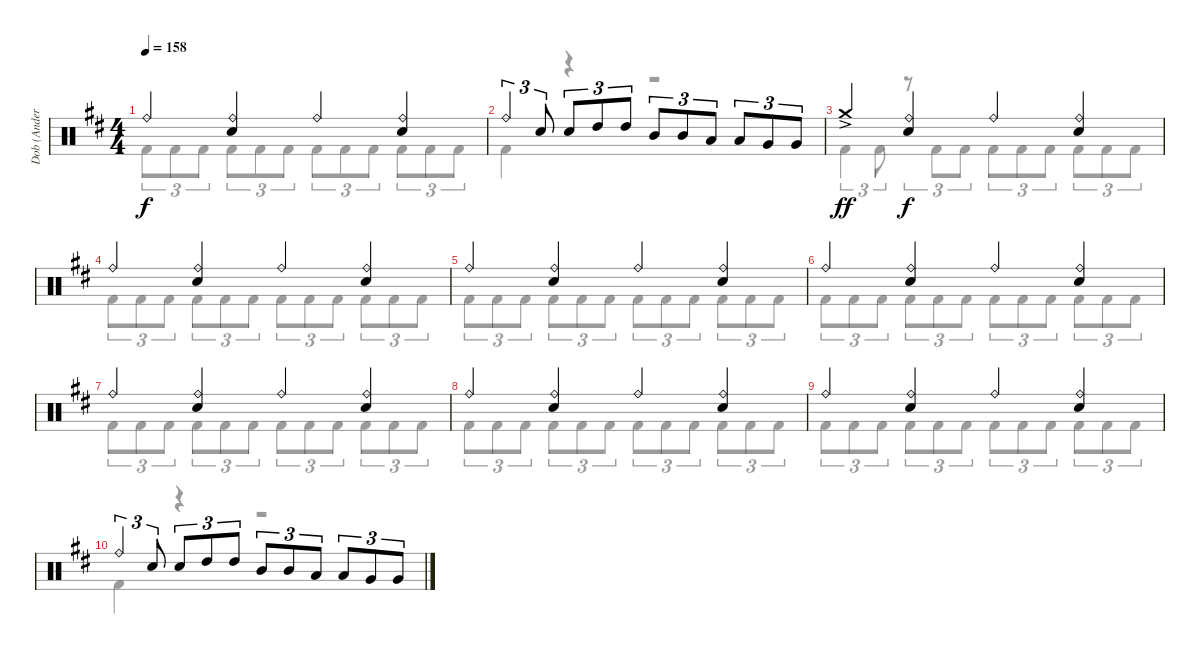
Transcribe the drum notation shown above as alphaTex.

\track ("Dob (Anders Johansson)" "Dob (Ander") {instrument percussion}
\staff {score}
\articulation defaults
\voice
\ts (4 4)
\tempo 158
\clef neutral
\ks d "Ride (bell)".4{dy f}
("Ride (bell)" "Electric Snare (hit)").4 "Ride (bell)".4 ("Ride (bell)" "Electric Snare (hit)").4 |
"Ride (bell)".4{tu (3 2)} "Electric Snare (hit)".8{tu (3 2)} "Electric Snare (hit)".8{tu (3 2)} "High Tom (hit)".8{tu (3 2)} "High Tom (hit)".8{tu (3 2)} "Mid Tom (hit)".8{tu (3 2)} "Mid Tom (hit)".8{tu (3 2)} "Low Tom (hit)".8{tu (3 2)} "Low Tom (hit)".8{tu (3 2)} "Very Low Tom (hit)".8{tu (3 2)} "Very Low Tom (hit)".8{tu (3 2)} |
"Crash medium (hit)"{ac}.4{dy ff} ("Ride (bell)" "Electric Snare (hit)").4{dy f} "Ride (bell)".4 ("Ride (bell)" "Electric Snare (hit)").4 |
"Ride (bell)".4 ("Ride (bell)" "Electric Snare (hit)").4 "Ride (bell)".4 ("Ride (bell)" "Electric Snare (hit)").4 |
"Ride (bell)".4 ("Ride (bell)" "Electric Snare (hit)").4 "Ride (bell)".4 ("Ride (bell)" "Electric Snare (hit)").4 |
"Ride (bell)".4 ("Ride (bell)" "Electric Snare (hit)").4 "Ride (bell)".4 ("Ride (bell)" "Electric Snare (hit)").4 |
"Ride (bell)".4 ("Ride (bell)" "Electric Snare (hit)").4 "Ride (bell)".4 ("Ride (bell)" "Electric Snare (hit)").4 |
"Ride (bell)".4 ("Ride (bell)" "Electric Snare (hit)").4 "Ride (bell)".4 ("Ride (bell)" "Electric Snare (hit)").4 |
"Ride (bell)".4 ("Ride (bell)" "Electric Snare (hit)").4 "Ride (bell)".4 ("Ride (bell)" "Electric Snare (hit)").4 |
"Ride (bell)".4{tu (3 2)} "Electric Snare (hit)".8{tu (3 2)} "Electric Snare (hit)".8{tu (3 2)} "High Tom (hit)".8{tu (3 2)} "High Tom (hit)".8{tu (3 2)} "Mid Tom (hit)".8{tu (3 2)} "Mid Tom (hit)".8{tu (3 2)} "Low Tom (hit)".8{tu (3 2)} "Low Tom (hit)".8{tu (3 2)} "Very Low Tom (hit)".8{tu (3 2)} "Very Low Tom (hit)".8{tu (3 2)} |
\voice
\clef neutral
\ottava regular
\simile none
\ks d "Kick (hit) 2".8{tu (3 2) dy f} "Kick (hit) 2".8{tu (3 2)} "Kick (hit) 2".8{tu (3 2)} "Kick (hit) 2".8{tu (3 2)} "Kick (hit) 2".8{tu (3 2)} "Kick (hit) 2".8{tu (3 2)} "Kick (hit) 2".8{tu (3 2)} "Kick (hit) 2".8{tu (3 2)} "Kick (hit) 2".8{tu (3 2)} "Kick (hit) 2".8{tu (3 2)} "Kick (hit) 2".8{tu (3 2)} "Kick (hit) 2".8{tu (3 2)}
|
"Kick (hit) 2".4 r.4 r.2 |
"Kick (hit) 2".4{tu (3 2)} "Kick (hit) 2".8{tu (3 2)} r.8{tu (3 2)} "Kick (hit) 2".8{tu (3 2)} "Kick (hit) 2".8{tu (3 2)} "Kick (hit) 2".8{tu (3 2)} "Kick (hit) 2".8{tu (3 2)} "Kick (hit) 2".8{tu (3 2)} "Kick (hit) 2".8{tu (3 2)} "Kick (hit) 2".8{tu (3 2)} "Kick (hit) 2".8{tu (3 2)} |
"Kick (hit) 2".8{tu (3 2)} "Kick (hit) 2".8{tu (3 2)} "Kick (hit) 2".8{tu (3 2)} "Kick (hit) 2".8{tu (3 2)} "Kick (hit) 2".8{tu (3 2)} "Kick (hit) 2".8{tu (3 2)} "Kick (hit) 2".8{tu (3 2)} "Kick (hit) 2".8{tu (3 2)} "Kick (hit) 2".8{tu (3 2)} "Kick (hit) 2".8{tu (3 2)} "Kick (hit) 2".8{tu (3 2)} "Kick (hit) 2".8{tu (3 2)} |
"Kick (hit) 2".8{tu (3 2)} "Kick (hit) 2".8{tu (3 2)} "Kick (hit) 2".8{tu (3 2)} "Kick (hit) 2".8{tu (3 2)} "Kick (hit) 2".8{tu (3 2)} "Kick (hit) 2".8{tu (3 2)} "Kick (hit) 2".8{tu (3 2)} "Kick (hit) 2".8{tu (3 2)} "Kick (hit) 2".8{tu (3 2)} "Kick (hit) 2".8{tu (3 2)} "Kick (hit) 2".8{tu (3 2)} "Kick (hit) 2".8{tu (3 2)} |
"Kick (hit) 2".8{tu (3 2)} "Kick (hit) 2".8{tu (3 2)} "Kick (hit) 2".8{tu (3 2)} "Kick (hit) 2".8{tu (3 2)} "Kick (hit) 2".8{tu (3 2)} "Kick (hit) 2".8{tu (3 2)} "Kick (hit) 2".8{tu (3 2)} "Kick (hit) 2".8{tu (3 2)} "Kick (hit) 2".8{tu (3 2)} "Kick (hit) 2".8{tu (3 2)} "Kick (hit) 2".8{tu (3 2)} "Kick (hit) 2".8{tu (3 2)} |
"Kick (hit) 2".8{tu (3 2)} "Kick (hit) 2".8{tu (3 2)} "Kick (hit) 2".8{tu (3 2)} "Kick (hit) 2".8{tu (3 2)} "Kick (hit) 2".8{tu (3 2)} "Kick (hit) 2".8{tu (3 2)} "Kick (hit) 2".8{tu (3 2)} "Kick (hit) 2".8{tu (3 2)} "Kick (hit) 2".8{tu (3 2)} "Kick (hit) 2".8{tu (3 2)} "Kick (hit) 2".8{tu (3 2)} "Kick (hit) 2".8{tu (3 2)} |
"Kick (hit) 2".8{tu (3 2)} "Kick (hit) 2".8{tu (3 2)} "Kick (hit) 2".8{tu (3 2)} "Kick (hit) 2".8{tu (3 2)} "Kick (hit) 2".8{tu (3 2)} "Kick (hit) 2".8{tu (3 2)} "Kick (hit) 2".8{tu (3 2)} "Kick (hit) 2".8{tu (3 2)} "Kick (hit) 2".8{tu (3 2)} "Kick (hit) 2".8{tu (3 2)} "Kick (hit) 2".8{tu (3 2)} "Kick (hit) 2".8{tu (3 2)} |
"Kick (hit) 2".8{tu (3 2)} "Kick (hit) 2".8{tu (3 2)} "Kick (hit) 2".8{tu (3 2)} "Kick (hit) 2".8{tu (3 2)} "Kick (hit) 2".8{tu (3 2)} "Kick (hit) 2".8{tu (3 2)} "Kick (hit) 2".8{tu (3 2)} "Kick (hit) 2".8{tu (3 2)} "Kick (hit) 2".8{tu (3 2)} "Kick (hit) 2".8{tu (3 2)} "Kick (hit) 2".8{tu (3 2)} "Kick (hit) 2".8{tu (3 2)} |
"Kick (hit) 2".4 r.4 r.2 |
